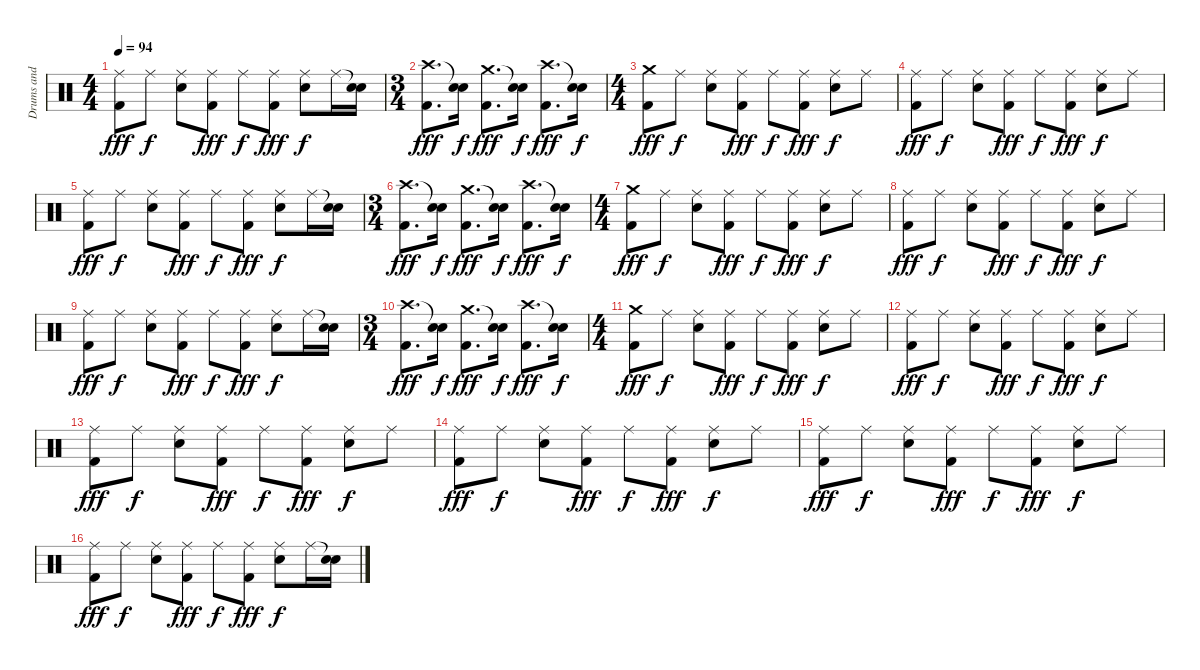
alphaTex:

\track ("Drums and Percussion" "Drums and ") {instrument percussion}
\staff {score}
\articulation defaults
\ts (4 4)
\tempo 94
\clef neutral
\ks c
("Ride (middle)" "Kick (hit) 2").8{dy fff} "Ride (middle)".8{dy f} ("Ride (middle)" "Snare (hit) 2").8 ("Ride (middle)" "Kick (hit) 2").8{dy fff} "Ride (middle)".8{dy f} ("Ride (middle)" "Kick (hit) 2").8{dy fff} ("Ride (middle)" "Snare (hit) 2").8{dy f} "Ride (middle)".16 ("Snare (hit)"{t} "Snare (hit) 2").16 |
\ts (3 4)
("Crash high (hit)" "Kick (hit) 2").8{d dy fff} ("Snare (hit)"{t} "Snare (hit) 2").16{dy f} ("Crash medium (hit)" "Kick (hit) 2").8{d dy fff} ("Snare (hit)"{t} "Snare (hit) 2").16{dy f} ("Crash high (hit)" "Kick (hit) 2").8{d dy fff} ("Snare (hit)"{t} "Snare (hit) 2").16{dy f} |
\ts (4 4)
("Crash medium (hit)" "Kick (hit) 2").8{dy fff} "Ride (middle)".8{dy f} ("Ride (middle)" "Snare (hit) 2").8 ("Ride (middle)" "Kick (hit) 2").8{dy fff} "Ride (middle)".8{dy f} ("Ride (middle)" "Kick (hit) 2").8{dy fff} ("Ride (middle)" "Snare (hit) 2").8{dy f} "Ride (middle)".8 |
("Ride (middle)" "Kick (hit) 2").8{dy fff} "Ride (middle)".8{dy f} ("Ride (middle)" "Snare (hit) 2").8 ("Ride (middle)" "Kick (hit) 2").8{dy fff} "Ride (middle)".8{dy f} ("Ride (middle)" "Kick (hit) 2").8{dy fff} ("Ride (middle)" "Snare (hit) 2").8{dy f} "Ride (middle)".8 |
("Ride (middle)" "Kick (hit) 2").8{dy fff} "Ride (middle)".8{dy f} ("Ride (middle)" "Snare (hit) 2").8 ("Ride (middle)" "Kick (hit) 2").8{dy fff} "Ride (middle)".8{dy f} ("Ride (middle)" "Kick (hit) 2").8{dy fff} ("Ride (middle)" "Snare (hit) 2").8{dy f} "Ride (middle)".16 ("Snare (hit)"{t} "Snare (hit) 2").16 |
\ts (3 4)
("Crash high (hit)" "Kick (hit) 2").8{d dy fff} ("Snare (hit)"{t} "Snare (hit) 2").16{dy f} ("Crash medium (hit)" "Kick (hit) 2").8{d dy fff} ("Snare (hit)"{t} "Snare (hit) 2").16{dy f} ("Crash high (hit)" "Kick (hit) 2").8{d dy fff} ("Snare (hit)"{t} "Snare (hit) 2").16{dy f} |
\ts (4 4)
("Crash medium (hit)" "Kick (hit) 2").8{dy fff} "Ride (middle)".8{dy f} ("Ride (middle)" "Snare (hit) 2").8 ("Ride (middle)" "Kick (hit) 2").8{dy fff} "Ride (middle)".8{dy f} ("Ride (middle)" "Kick (hit) 2").8{dy fff} ("Ride (middle)" "Snare (hit) 2").8{dy f} "Ride (middle)".8 |
("Ride (middle)" "Kick (hit) 2").8{dy fff} "Ride (middle)".8{dy f} ("Ride (middle)" "Snare (hit) 2").8 ("Ride (middle)" "Kick (hit) 2").8{dy fff} "Ride (middle)".8{dy f} ("Ride (middle)" "Kick (hit) 2").8{dy fff} ("Ride (middle)" "Snare (hit) 2").8{dy f} "Ride (middle)".8 |
("Ride (middle)" "Kick (hit) 2").8{dy fff} "Ride (middle)".8{dy f} ("Ride (middle)" "Snare (hit) 2").8 ("Ride (middle)" "Kick (hit) 2").8{dy fff} "Ride (middle)".8{dy f} ("Ride (middle)" "Kick (hit) 2").8{dy fff} ("Ride (middle)" "Snare (hit) 2").8{dy f} "Ride (middle)".16 ("Snare (hit)"{t} "Snare (hit) 2").16 |
\ts (3 4)
("Crash high (hit)" "Kick (hit) 2").8{d dy fff} ("Snare (hit)"{t} "Snare (hit) 2").16{dy f} ("Crash medium (hit)" "Kick (hit) 2").8{d dy fff} ("Snare (hit)"{t} "Snare (hit) 2").16{dy f} ("Crash high (hit)" "Kick (hit) 2").8{d dy fff} ("Snare (hit)"{t} "Snare (hit) 2").16{dy f} |
\ts (4 4)
("Crash medium (hit)" "Kick (hit) 2").8{dy fff} "Ride (middle)".8{dy f} ("Ride (middle)" "Snare (hit) 2").8 ("Ride (middle)" "Kick (hit) 2").8{dy fff} "Ride (middle)".8{dy f} ("Ride (middle)" "Kick (hit) 2").8{dy fff} ("Ride (middle)" "Snare (hit) 2").8{dy f} "Ride (middle)".8 |
("Ride (middle)" "Kick (hit) 2").8{dy fff} "Ride (middle)".8{dy f} ("Ride (middle)" "Snare (hit) 2").8 ("Ride (middle)" "Kick (hit) 2").8{dy fff} "Ride (middle)".8{dy f} ("Ride (middle)" "Kick (hit) 2").8{dy fff} ("Ride (middle)" "Snare (hit) 2").8{dy f} "Ride (middle)".8 |
("Ride (middle)" "Kick (hit) 2").8{dy fff} "Ride (middle)".8{dy f} ("Ride (middle)" "Snare (hit) 2").8 ("Ride (middle)" "Kick (hit) 2").8{dy fff} "Ride (middle)".8{dy f} ("Ride (middle)" "Kick (hit) 2").8{dy fff} ("Ride (middle)" "Snare (hit) 2").8{dy f} "Ride (middle)".8 |
("Ride (middle)" "Kick (hit) 2").8{dy fff} "Ride (middle)".8{dy f} ("Ride (middle)" "Snare (hit) 2").8 ("Ride (middle)" "Kick (hit) 2").8{dy fff} "Ride (middle)".8{dy f} ("Ride (middle)" "Kick (hit) 2").8{dy fff} ("Ride (middle)" "Snare (hit) 2").8{dy f} "Ride (middle)".8 |
("Ride (middle)" "Kick (hit) 2").8{dy fff} "Ride (middle)".8{dy f} ("Ride (middle)" "Snare (hit) 2").8 ("Ride (middle)" "Kick (hit) 2").8{dy fff} "Ride (middle)".8{dy f} ("Ride (middle)" "Kick (hit) 2").8{dy fff} ("Ride (middle)" "Snare (hit) 2").8{dy f} "Ride (middle)".8 |
("Ride (middle)" "Kick (hit) 2").8{dy fff} "Ride (middle)".8{dy f} ("Ride (middle)" "Snare (hit) 2").8 ("Ride (middle)" "Kick (hit) 2").8{dy fff} "Ride (middle)".8{dy f} ("Ride (middle)" "Kick (hit) 2").8{dy fff} ("Ride (middle)" "Snare (hit) 2").8{dy f} "Ride (middle)".16 ("Snare (hit)"{t} "Snare (hit) 2").16
